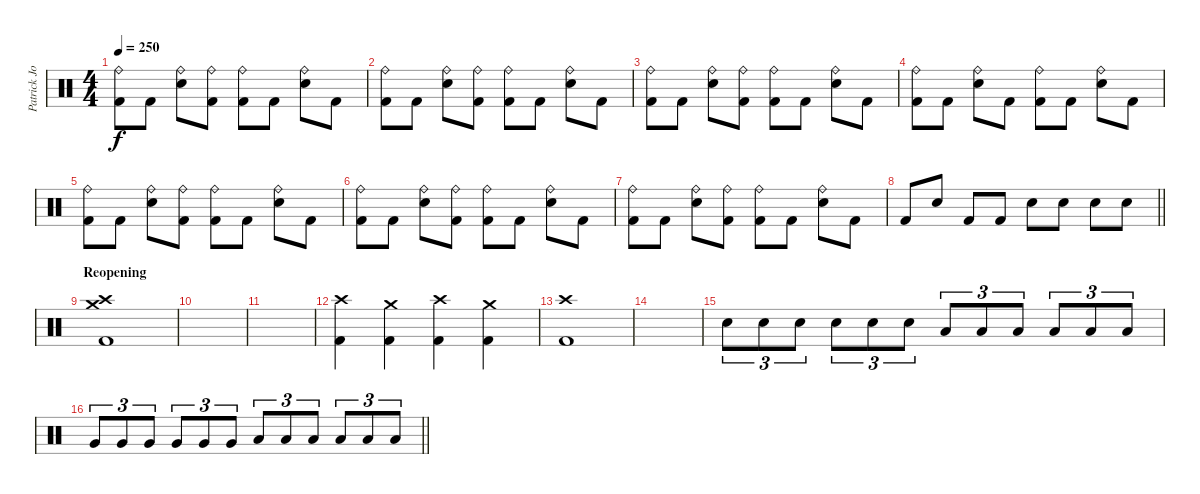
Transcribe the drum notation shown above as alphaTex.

\track ("Patrick Johansson" "Patrick Jo") {instrument percussion}
\staff {score}
\articulation defaults
\ts (4 4)
\tempo 250
\clef neutral
\ks c
("Ride (bell)" "Kick (hit) 2").8{dy f} "Kick (hit) 2".8 ("Ride (bell)" "Snare (hit) 2").8 ("Ride (bell)" "Kick (hit) 2").8 ("Ride (bell)" "Kick (hit) 2").8 "Kick (hit) 2".8 ("Ride (bell)" "Snare (hit) 2").8 "Kick (hit) 2".8 |
("Ride (bell)" "Kick (hit) 2").8 "Kick (hit) 2".8 ("Ride (bell)" "Snare (hit) 2").8 ("Ride (bell)" "Kick (hit) 2").8 ("Ride (bell)" "Kick (hit) 2").8 "Kick (hit) 2".8 ("Ride (bell)" "Snare (hit) 2").8 "Kick (hit) 2".8 |
("Ride (bell)" "Kick (hit) 2").8 "Kick (hit) 2".8 ("Ride (bell)" "Snare (hit) 2").8 ("Ride (bell)" "Kick (hit) 2").8 ("Ride (bell)" "Kick (hit) 2").8 "Kick (hit) 2".8 ("Ride (bell)" "Snare (hit) 2").8 "Kick (hit) 2".8 |
("Ride (bell)" "Kick (hit) 2").8 "Kick (hit) 2".8 ("Ride (bell)" "Snare (hit) 2").8 "Kick (hit) 2".8 ("Ride (bell)" "Kick (hit) 2").8 "Kick (hit) 2".8 ("Ride (bell)" "Snare (hit) 2").8 "Kick (hit) 2".8 |
("Ride (bell)" "Kick (hit) 2").8 "Kick (hit) 2".8 ("Ride (bell)" "Snare (hit) 2").8 ("Ride (bell)" "Kick (hit) 2").8 ("Ride (bell)" "Kick (hit) 2").8 "Kick (hit) 2".8 ("Ride (bell)" "Snare (hit) 2").8 "Kick (hit) 2".8 |
("Ride (bell)" "Kick (hit) 2").8 "Kick (hit) 2".8 ("Ride (bell)" "Snare (hit) 2").8 ("Ride (bell)" "Kick (hit) 2").8 ("Ride (bell)" "Kick (hit) 2").8 "Kick (hit) 2".8 ("Ride (bell)" "Snare (hit) 2").8 "Kick (hit) 2".8 |
("Ride (bell)" "Kick (hit) 2").8 "Kick (hit) 2".8 ("Ride (bell)" "Snare (hit) 2").8 ("Ride (bell)" "Kick (hit) 2").8 ("Ride (bell)" "Kick (hit) 2").8 "Kick (hit) 2".8 ("Ride (bell)" "Snare (hit) 2").8 "Kick (hit) 2".8 |
\barLineRight lightlight "Kick (hit) 2".8 "Snare (hit) 2".8 "Kick (hit) 2".8 "Kick (hit) 2".8 "Snare (hit) 2".8 "Snare (hit) 2".8 "Snare (hit) 2".8 "Snare (hit) 2".8
|
\section ("" "Reopening")
("Crash medium (hit)" "Crash high (hit)" "Kick (hit) 2").1 |
|
|
("Crash high (hit)" "Kick (hit) 2").4 ("Crash medium (hit)" "Kick (hit) 2").4 ("Crash high (hit)" "Kick (hit) 2").4 ("Crash medium (hit)" "Kick (hit) 2").4 |
("Crash high (hit)" "Kick (hit) 2").1 |
|
"Snare (hit) 2".8{tu (3 2)} "Snare (hit) 2".8{tu (3 2)} "Snare (hit) 2".8{tu (3 2)} "Snare (hit) 2".8{tu (3 2)} "Snare (hit) 2".8{tu (3 2)} "Snare (hit) 2".8{tu (3 2)} "Low Tom (hit)".8{tu (3 2)} "Low Tom (hit)".8{tu (3 2)} "Low Tom (hit)".8{tu (3 2)} "Low Tom (hit)".8{tu (3 2)} "Low Tom (hit)".8{tu (3 2)} "Low Tom (hit)".8{tu (3 2)} |
\barLineRight lightlight "Very Low Tom (hit)".8{tu (3 2)} "Very Low Tom (hit)".8{tu (3 2)} "Very Low Tom (hit)".8{tu (3 2)} "Very Low Tom (hit)".8{tu (3 2)} "Very Low Tom (hit)".8{tu (3 2)} "Very Low Tom (hit)".8{tu (3 2)} "Low Floor Tom (hit)".8{tu (3 2)} "Low Floor Tom (hit)".8{tu (3 2)} "Low Floor Tom (hit)".8{tu (3 2)} "Low Floor Tom (hit)".8{tu (3 2)} "Low Floor Tom (hit)".8{tu (3 2)} "Low Floor Tom (hit)".8{tu (3 2)}
